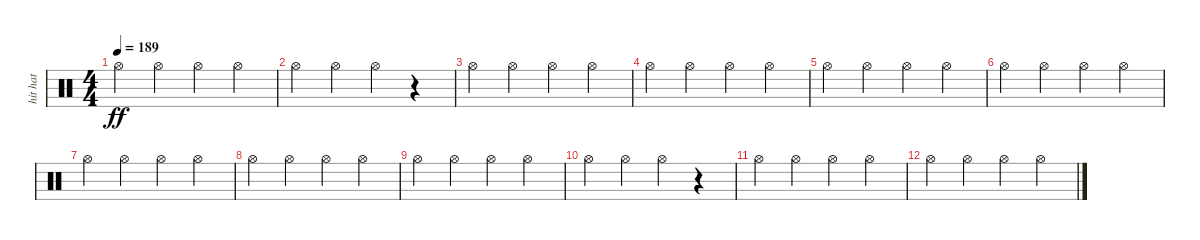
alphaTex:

\track ("hit hat" "hit hat") {instrument percussion}
\staff {score}
\articulation defaults
\ts (4 4)
\tempo 189
\clef neutral
\ks c "Hi-Hat (open)".4{dy ff} "Hi-Hat (open)".4 "Hi-Hat (open)".4 "Hi-Hat (open)".4
|
"Hi-Hat (open)".4 "Hi-Hat (open)".4 "Hi-Hat (open)".4 r.4 |
"Hi-Hat (open)".4 "Hi-Hat (open)".4 "Hi-Hat (open)".4 "Hi-Hat (open)".4 |
"Hi-Hat (open)".4 "Hi-Hat (open)".4 "Hi-Hat (open)".4 "Hi-Hat (open)".4 |
"Hi-Hat (open)".4 "Hi-Hat (open)".4 "Hi-Hat (open)".4 "Hi-Hat (open)".4 |
"Hi-Hat (open)".4 "Hi-Hat (open)".4 "Hi-Hat (open)".4 "Hi-Hat (open)".4 |
"Hi-Hat (open)".4 "Hi-Hat (open)".4 "Hi-Hat (open)".4 "Hi-Hat (open)".4 |
"Hi-Hat (open)".4 "Hi-Hat (open)".4 "Hi-Hat (open)".4 "Hi-Hat (open)".4 |
"Hi-Hat (open)".4 "Hi-Hat (open)".4 "Hi-Hat (open)".4 "Hi-Hat (open)".4 |
"Hi-Hat (open)".4 "Hi-Hat (open)".4 "Hi-Hat (open)".4 r.4 |
"Hi-Hat (open)".4 "Hi-Hat (open)".4 "Hi-Hat (open)".4 "Hi-Hat (open)".4 |
"Hi-Hat (open)".4 "Hi-Hat (open)".4 "Hi-Hat (open)".4 "Hi-Hat (open)".4
